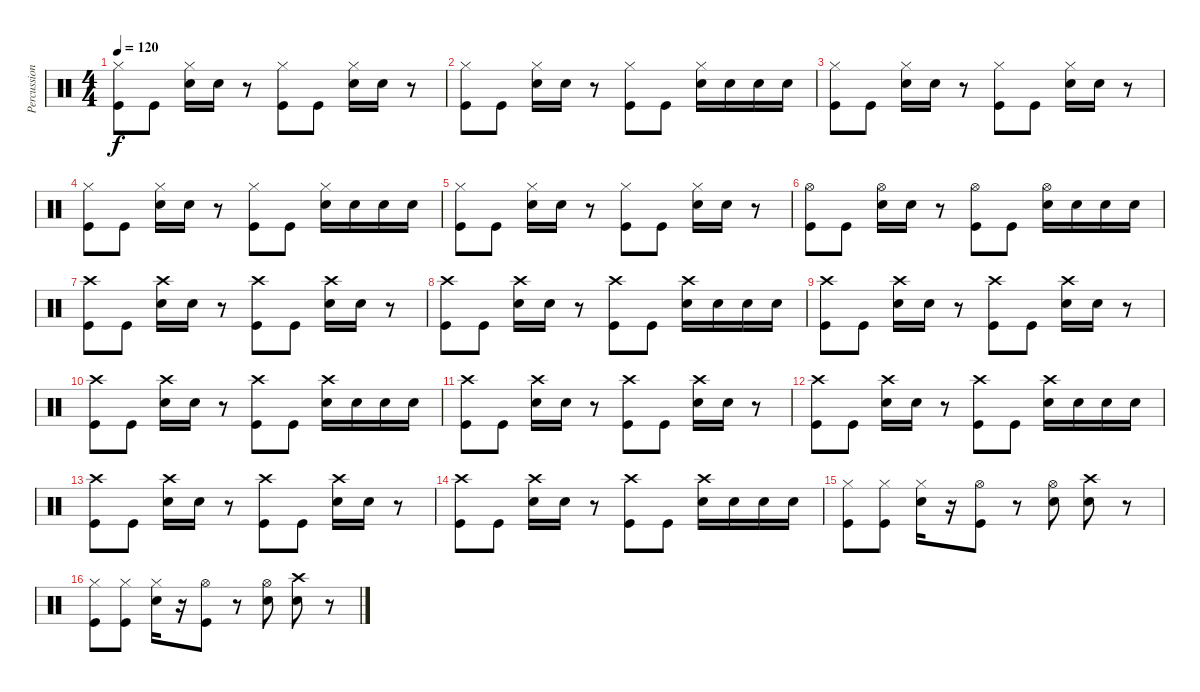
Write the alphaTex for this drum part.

\track ("Percussion" "Percussion") {instrument percussion}
\staff {score}
\articulation defaults
\ts (4 4)
\tempo 120
\clef neutral
\ks c
("Hi-Hat (closed)" "Kick (hit)").8{dy f} "Kick (hit)".8 ("Hi-Hat (closed)" "Snare (hit) 2").16 "Snare (hit) 2".16 r.8 ("Hi-Hat (closed)" "Kick (hit)").8 "Kick (hit)".8 ("Hi-Hat (closed)" "Snare (hit) 2").16 "Snare (hit) 2".16 r.8 |
("Hi-Hat (closed)" "Kick (hit)").8 "Kick (hit)".8 ("Hi-Hat (closed)" "Snare (hit) 2").16 "Snare (hit) 2".16 r.8 ("Hi-Hat (closed)" "Kick (hit)").8 "Kick (hit)".8 ("Hi-Hat (closed)" "Snare (hit) 2").16 "Snare (hit) 2".16 "Electric Snare (hit)".16 "Snare (hit) 2".16 |
("Hi-Hat (closed)" "Kick (hit)").8 "Kick (hit)".8 ("Hi-Hat (closed)" "Snare (hit) 2").16 "Snare (hit) 2".16 r.8 ("Hi-Hat (closed)" "Kick (hit)").8 "Kick (hit)".8 ("Hi-Hat (closed)" "Snare (hit) 2").16 "Snare (hit) 2".16 r.8 |
("Hi-Hat (closed)" "Kick (hit)").8 "Kick (hit)".8 ("Hi-Hat (closed)" "Snare (hit) 2").16 "Snare (hit) 2".16 r.8 ("Hi-Hat (closed)" "Kick (hit)").8 "Kick (hit)".8 ("Hi-Hat (closed)" "Snare (hit) 2").16 "Snare (hit) 2".16 "Electric Snare (hit)".16 "Snare (hit) 2".16 |
("Hi-Hat (closed)" "Kick (hit)").8 "Kick (hit)".8 ("Hi-Hat (closed)" "Snare (hit) 2").16 "Snare (hit) 2".16 r.8 ("Hi-Hat (closed)" "Kick (hit)").8 "Kick (hit)".8 ("Hi-Hat (closed)" "Snare (hit) 2").16 "Snare (hit) 2".16 r.8 |
("Hi-Hat (open)" "Kick (hit)").8 "Kick (hit)".8 ("Hi-Hat (open)" "Snare (hit) 2").16 "Snare (hit) 2".16 r.8 ("Hi-Hat (open)" "Kick (hit)").8 "Kick (hit)".8 ("Hi-Hat (open)" "Snare (hit) 2").16 "Snare (hit) 2".16 "Electric Snare (hit)".16 "Snare (hit) 2".16 |
("Crash high (hit)" "Kick (hit)").8 "Kick (hit)".8 ("Crash high (hit)" "Snare (hit) 2").16 "Snare (hit) 2".16 r.8 ("Crash high (hit)" "Kick (hit)").8 "Kick (hit)".8 ("Crash high (hit)" "Snare (hit) 2").16 "Snare (hit) 2".16 r.8 |
("Crash high (hit)" "Kick (hit)").8 "Kick (hit)".8 ("Crash high (hit)" "Snare (hit) 2").16 "Snare (hit) 2".16 r.8 ("Crash high (hit)" "Kick (hit)").8 "Kick (hit)".8 ("Crash high (hit)" "Snare (hit) 2").16 "Snare (hit) 2".16 "Electric Snare (hit)".16 "Snare (hit) 2".16 |
("Crash high (hit)" "Kick (hit)").8 "Kick (hit)".8 ("Crash high (hit)" "Snare (hit) 2").16 "Snare (hit) 2".16 r.8 ("Crash high (hit)" "Kick (hit)").8 "Kick (hit)".8 ("Crash high (hit)" "Snare (hit) 2").16 "Snare (hit) 2".16 r.8 |
("Crash high (hit)" "Kick (hit)").8 "Kick (hit)".8 ("Crash high (hit)" "Snare (hit) 2").16 "Snare (hit) 2".16 r.8 ("Crash high (hit)" "Kick (hit)").8 "Kick (hit)".8 ("Crash high (hit)" "Snare (hit) 2").16 "Snare (hit) 2".16 "Electric Snare (hit)".16 "Snare (hit) 2".16 |
("Crash high (hit)" "Kick (hit)").8 "Kick (hit)".8 ("Crash high (hit)" "Snare (hit) 2").16 "Snare (hit) 2".16 r.8 ("Crash high (hit)" "Kick (hit)").8 "Kick (hit)".8 ("Crash high (hit)" "Snare (hit) 2").16 "Snare (hit) 2".16 r.8 |
("Crash high (hit)" "Kick (hit)").8 "Kick (hit)".8 ("Crash high (hit)" "Snare (hit) 2").16 "Snare (hit) 2".16 r.8 ("Crash high (hit)" "Kick (hit)").8 "Kick (hit)".8 ("Crash high (hit)" "Snare (hit) 2").16 "Snare (hit) 2".16 "Electric Snare (hit)".16 "Snare (hit) 2".16 |
("Crash high (hit)" "Kick (hit)").8 "Kick (hit)".8 ("Crash high (hit)" "Snare (hit) 2").16 "Snare (hit) 2".16 r.8 ("Crash high (hit)" "Kick (hit)").8 "Kick (hit)".8 ("Crash high (hit)" "Snare (hit) 2").16 "Snare (hit) 2".16 r.8 |
("Crash high (hit)" "Kick (hit)").8 "Kick (hit)".8 ("Crash high (hit)" "Snare (hit) 2").16 "Snare (hit) 2".16 r.8 ("Crash high (hit)" "Kick (hit)").8 "Kick (hit)".8 ("Crash high (hit)" "Snare (hit) 2").16 "Snare (hit) 2".16 "Electric Snare (hit)".16 "Snare (hit) 2".16 |
("Hi-Hat (closed)" "Kick (hit)").8 ("Hi-Hat (closed)" "Kick (hit)").8 ("Hi-Hat (closed)" "Snare (hit) 2").16 r.16 ("Hi-Hat (open)" "Kick (hit)").8 r.8 ("Hi-Hat (open)" "Snare (hit) 2").8 ("Crash high (hit)" "Snare (hit) 2").8 r.8 |
("Hi-Hat (closed)" "Kick (hit)").8 ("Hi-Hat (closed)" "Kick (hit)").8 ("Hi-Hat (closed)" "Snare (hit) 2").16 r.16 ("Hi-Hat (open)" "Kick (hit)").8 r.8 ("Hi-Hat (open)" "Snare (hit) 2").8 ("Crash high (hit)" "Snare (hit) 2").8 r.8
